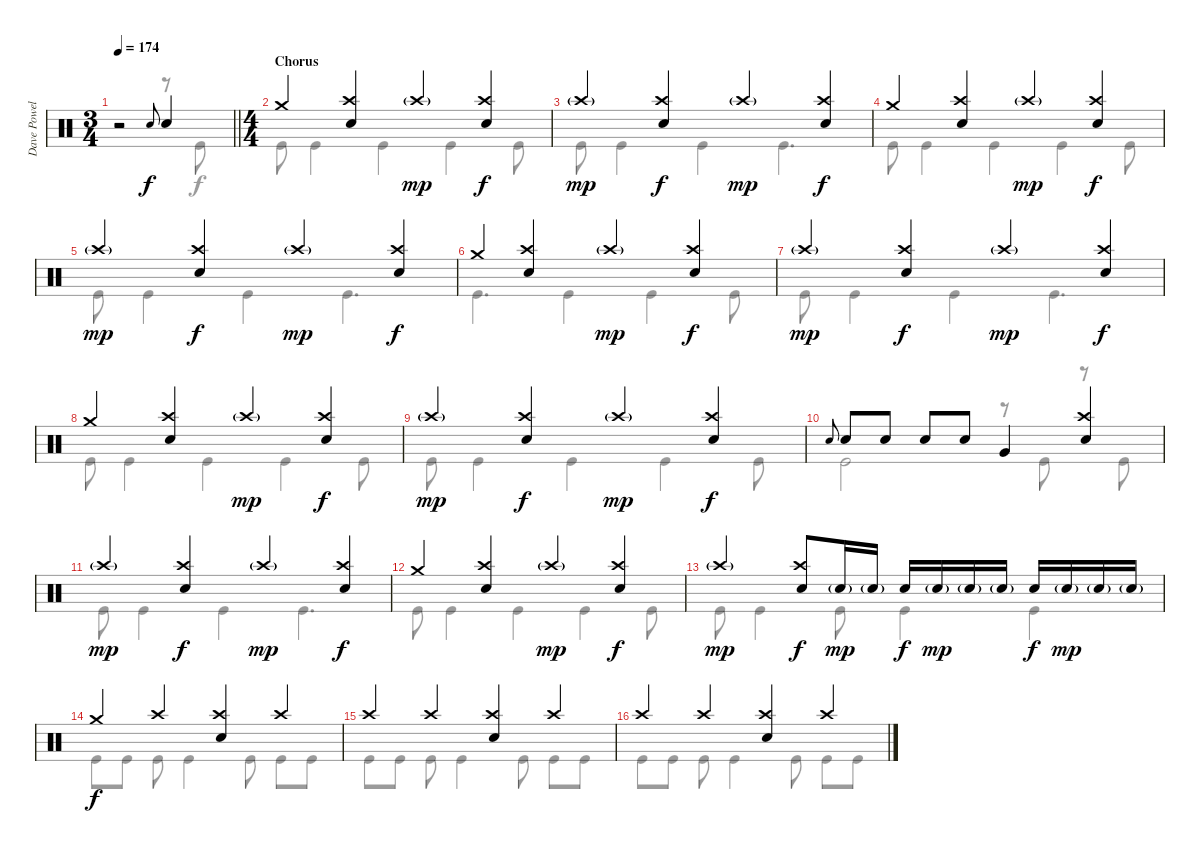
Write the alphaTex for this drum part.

\track ("Dave Powell" "Dave Powel") {instrument percussion}
\staff {score}
\articulation defaults
\voice
\ts (3 4)
\tempo 174
\clef neutral
\barLineRight lightlight
\ks c
r.2{dy f} "Electric Snare (hit)".8{gr onbeat} "Electric Snare (hit)".4 |
\ts (4 4)
\section ("" "Chorus")
"Crash medium (hit)".4 ("Crash high (hit)" "Electric Snare (hit)").4 "Crash high (hit)"{g}.4{dy mp} ("Crash high (hit)" "Electric Snare (hit)").4{dy f} |
"Crash high (hit)"{g}.4{dy mp} ("Crash high (hit)" "Electric Snare (hit)").4{dy f} "Crash high (hit)"{g}.4{dy mp} ("Crash high (hit)" "Electric Snare (hit)").4{dy f} |
"Crash medium (hit)".4 ("Crash high (hit)" "Electric Snare (hit)").4 "Crash high (hit)"{g}.4{dy mp} ("Crash high (hit)" "Electric Snare (hit)").4{dy f} |
"Crash high (hit)"{g}.4{dy mp} ("Crash high (hit)" "Electric Snare (hit)").4{dy f} "Crash high (hit)"{g}.4{dy mp} ("Crash high (hit)" "Electric Snare (hit)").4{dy f} |
"Crash medium (hit)".4 ("Crash high (hit)" "Electric Snare (hit)").4 "Crash high (hit)"{g}.4{dy mp} ("Crash high (hit)" "Electric Snare (hit)").4{dy f} |
"Crash high (hit)"{g}.4{dy mp} ("Crash high (hit)" "Electric Snare (hit)").4{dy f} "Crash high (hit)"{g}.4{dy mp} ("Crash high (hit)" "Electric Snare (hit)").4{dy f} |
"Crash medium (hit)".4 ("Crash high (hit)" "Electric Snare (hit)").4 "Crash high (hit)"{g}.4{dy mp} ("Crash high (hit)" "Electric Snare (hit)").4{dy f} |
"Crash high (hit)"{g}.4{dy mp} ("Crash high (hit)" "Electric Snare (hit)").4{dy f} "Crash high (hit)"{g}.4{dy mp} ("Crash high (hit)" "Electric Snare (hit)").4{dy f} |
"Electric Snare (hit)".8{gr onbeat} "Electric Snare (hit)".8 "Electric Snare (hit)".8 "Electric Snare (hit)".8 "Electric Snare (hit)".8 "Very Low Tom (hit)".4 ("Crash high (hit)" "Electric Snare (hit)").4 |
"Crash high (hit)"{g}.4{dy mp} ("Crash high (hit)" "Electric Snare (hit)").4{dy f} "Crash high (hit)"{g}.4{dy mp} ("Crash high (hit)" "Electric Snare (hit)").4{dy f} |
"Crash medium (hit)".4 ("Crash high (hit)" "Electric Snare (hit)").4 "Crash high (hit)"{g}.4{dy mp} ("Crash high (hit)" "Electric Snare (hit)").4{dy f} |
"Crash high (hit)"{g}.4{dy mp} ("Crash high (hit)" "Electric Snare (hit)").8{dy f} "Electric Snare (hit)"{g}.16{dy mp} "Electric Snare (hit)"{g}.16 "Electric Snare (hit)".16{dy f} "Electric Snare (hit)"{g}.16{dy mp} "Electric Snare (hit)"{g}.16 "Electric Snare (hit)"{g}.16 "Electric Snare (hit)".16{dy f} "Electric Snare (hit)"{g}.16{dy mp} "Electric Snare (hit)"{g}.16 "Electric Snare (hit)"{g}.16 |
"Crash medium (hit)".4{dy f} "Crash high (hit)".4 ("Crash high (hit)" "Electric Snare (hit)").4 "Crash high (hit)".4 |
"Crash high (hit)".4 "Crash high (hit)".4 ("Crash high (hit)" "Electric Snare (hit)").4 "Crash high (hit)".4 |
"Crash high (hit)".4 "Crash high (hit)".4 ("Crash high (hit)" "Electric Snare (hit)").4 "Crash high (hit)".4
\voice
\clef neutral
\ottava regular
\simile none
\barLineRight lightlight
\ks c
r.2{dy f} r.8 "Kick (hit)".8 |
"Kick (hit)".8 "Kick (hit)".4 "Kick (hit)".4 "Kick (hit)".4 "Kick (hit)".8 |
"Kick (hit)".8 "Kick (hit)".4 "Kick (hit)".4 "Kick (hit)".4{d} |
"Kick (hit)".8 "Kick (hit)".4 "Kick (hit)".4 "Kick (hit)".4 "Kick (hit)".8 |
"Kick (hit)".8 "Kick (hit)".4 "Kick (hit)".4 "Kick (hit)".4{d} |
"Kick (hit)".4{d} "Kick (hit)".4 "Kick (hit)".4 "Kick (hit)".8 |
"Kick (hit)".8 "Kick (hit)".4 "Kick (hit)".4 "Kick (hit)".4{d} |
"Kick (hit)".8 "Kick (hit)".4 "Kick (hit)".4 "Kick (hit)".4 "Kick (hit)".8 |
"Kick (hit)".8 "Kick (hit)".4 "Kick (hit)".4 "Kick (hit)".4 "Kick (hit)".8 |
"Kick (hit)".2 r.8 "Kick (hit)".8 r.8 "Kick (hit)".8 |
"Kick (hit)".8 "Kick (hit)".4 "Kick (hit)".4 "Kick (hit)".4{d} |
"Kick (hit)".8 "Kick (hit)".4 "Kick (hit)".4 "Kick (hit)".4 "Kick (hit)".8 |
"Kick (hit)".8 "Kick (hit)".4 "Kick (hit)".8 "Kick (hit)".4 "Kick (hit)".4 |
"Kick (hit)".8 "Kick (hit)".8 "Kick (hit)".8 "Kick (hit)".4 "Kick (hit)".8 "Kick (hit)".8 "Kick (hit)".8 |
"Kick (hit)".8 "Kick (hit)".8 "Kick (hit)".8 "Kick (hit)".4 "Kick (hit)".8 "Kick (hit)".8 "Kick (hit)".8 |
"Kick (hit)".8 "Kick (hit)".8 "Kick (hit)".8 "Kick (hit)".4 "Kick (hit)".8 "Kick (hit)".8 "Kick (hit)".8
